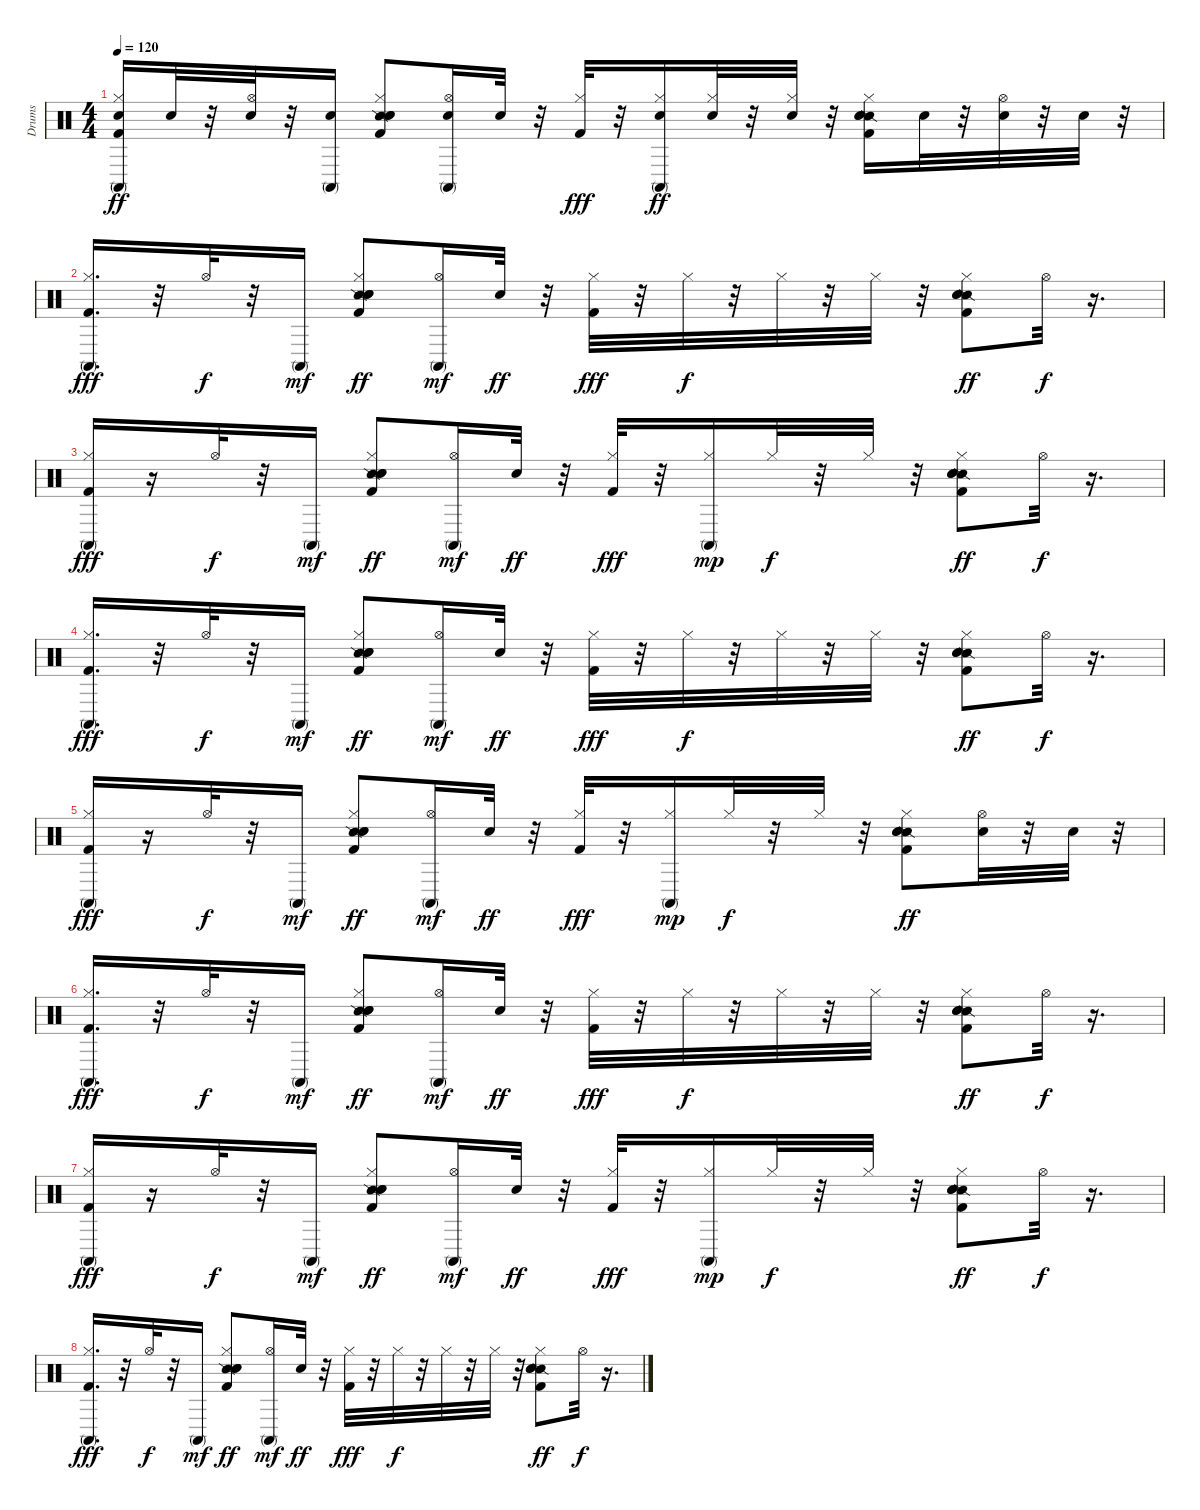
\track ("Drums" "Drums") {instrument percussion}
\staff {score}
\articulation defaults
\ts (4 4)
\tempo 120
\clef neutral
\ks c
("Conga high (mute)" "Kick (hit) 2" "Snare (hit) 2" "Hi-Hat (closed)").16{dy ff} "Snare (hit) 2".32 r.32 ("Snare (hit) 2" "Hi-Hat (open)").32 r.32 ("Conga high (mute)" "Snare (hit) 2").16 ("Snare (side stick) 2" "Kick (hit) 2" "Snare (hit) 2" "Hi-Hat (closed)" "Hand Clap (hit)").8 ("Conga high (mute)" "Snare (hit) 2" "Hi-Hat (open)").16 "Snare (hit) 2".32 r.32 ("Kick (hit) 2" "Hi-Hat (closed)").32{dy fff} r.32 ("Conga high (mute)" "Snare (hit) 2" "Hi-Hat (closed)").16{dy ff} ("Snare (hit) 2" "Hi-Hat (closed)").32 r.32 ("Snare (hit) 2" "Hi-Hat (closed)").32 r.32 ("Snare (side stick) 2" "Kick (hit) 2" "Snare (hit) 2" "Hi-Hat (closed)" "Hand Clap (hit)").16 "Snare (hit) 2".32 r.32 ("Snare (hit) 2" "Hi-Hat (open)").32 r.32 "Snare (hit) 2".32 r.32 |
("Conga high (mute)" "Kick (hit) 2" "Hi-Hat (closed)").16{d dy fff} r.32 "Hi-Hat (open)".32{dy f} r.32 "Conga high (mute)".16{dy mf} ("Snare (side stick) 2" "Kick (hit) 2" "Snare (hit) 2" "Hi-Hat (closed)" "Hand Clap (hit)").8{dy ff} ("Conga high (mute)" "Hi-Hat (open)").16{dy mf} "Snare (hit) 2".32{dy ff} r.32 ("Kick (hit) 2" "Hi-Hat (closed)").32{dy fff} r.32 "Hi-Hat (closed)".32{dy f} r.32 "Hi-Hat (closed)".32 r.32 "Hi-Hat (closed)".32 r.32 ("Snare (side stick) 2" "Kick (hit) 2" "Snare (hit) 2" "Hi-Hat (closed)" "Hand Clap (hit)").8{dy ff} "Hi-Hat (open)".32{dy f} r.16{d} |
("Conga high (mute)" "Kick (hit) 2" "Hi-Hat (closed)").16{dy fff} r.16 "Hi-Hat (open)".32{dy f} r.32 "Conga high (mute)".16{dy mf} ("Snare (side stick) 2" "Kick (hit) 2" "Snare (hit) 2" "Hi-Hat (closed)" "Hand Clap (hit)").8{dy ff} ("Conga high (mute)" "Hi-Hat (open)").16{dy mf} "Snare (hit) 2".32{dy ff} r.32 ("Kick (hit) 2" "Hi-Hat (closed)").32{dy fff} r.32 ("Conga high (mute)" "Hi-Hat (closed)").16{dy mp} "Hi-Hat (closed)".32{dy f} r.32 "Hi-Hat (closed)".32 r.32 ("Snare (side stick) 2" "Kick (hit) 2" "Snare (hit) 2" "Hi-Hat (closed)" "Hand Clap (hit)").8{dy ff} "Hi-Hat (open)".32{dy f} r.16{d} |
("Conga high (mute)" "Kick (hit) 2" "Hi-Hat (closed)").16{d dy fff} r.32 "Hi-Hat (open)".32{dy f} r.32 "Conga high (mute)".16{dy mf} ("Snare (side stick) 2" "Kick (hit) 2" "Snare (hit) 2" "Hi-Hat (closed)" "Hand Clap (hit)").8{dy ff} ("Conga high (mute)" "Hi-Hat (open)").16{dy mf} "Snare (hit) 2".32{dy ff} r.32 ("Kick (hit) 2" "Hi-Hat (closed)").32{dy fff} r.32 "Hi-Hat (closed)".32{dy f} r.32 "Hi-Hat (closed)".32 r.32 "Hi-Hat (closed)".32 r.32 ("Snare (side stick) 2" "Kick (hit) 2" "Snare (hit) 2" "Hi-Hat (closed)" "Hand Clap (hit)").8{dy ff} "Hi-Hat (open)".32{dy f} r.16{d} |
("Conga high (mute)" "Kick (hit) 2" "Hi-Hat (closed)").16{dy fff} r.16 "Hi-Hat (open)".32{dy f} r.32 "Conga high (mute)".16{dy mf} ("Snare (side stick) 2" "Kick (hit) 2" "Snare (hit) 2" "Hi-Hat (closed)" "Hand Clap (hit)").8{dy ff} ("Conga high (mute)" "Hi-Hat (open)").16{dy mf} "Snare (hit) 2".32{dy ff} r.32 ("Kick (hit) 2" "Hi-Hat (closed)").32{dy fff} r.32 ("Conga high (mute)" "Hi-Hat (closed)").16{dy mp} "Hi-Hat (closed)".32{dy f} r.32 "Hi-Hat (closed)".32 r.32 ("Snare (side stick) 2" "Kick (hit) 2" "Snare (hit) 2" "Hi-Hat (closed)" "Hand Clap (hit)").8{dy ff} ("Snare (hit) 2" "Hi-Hat (open)").32 r.32 "Snare (hit) 2".32 r.32 |
("Conga high (mute)" "Kick (hit) 2" "Hi-Hat (closed)").16{d dy fff} r.32 "Hi-Hat (open)".32{dy f} r.32 "Conga high (mute)".16{dy mf} ("Snare (side stick) 2" "Kick (hit) 2" "Snare (hit) 2" "Hi-Hat (closed)" "Hand Clap (hit)").8{dy ff} ("Conga high (mute)" "Hi-Hat (open)").16{dy mf} "Snare (hit) 2".32{dy ff} r.32 ("Kick (hit) 2" "Hi-Hat (closed)").32{dy fff} r.32 "Hi-Hat (closed)".32{dy f} r.32 "Hi-Hat (closed)".32 r.32 "Hi-Hat (closed)".32 r.32 ("Snare (side stick) 2" "Kick (hit) 2" "Snare (hit) 2" "Hi-Hat (closed)" "Hand Clap (hit)").8{dy ff} "Hi-Hat (open)".32{dy f} r.16{d} |
("Conga high (mute)" "Kick (hit) 2" "Hi-Hat (closed)").16{dy fff} r.16 "Hi-Hat (open)".32{dy f} r.32 "Conga high (mute)".16{dy mf} ("Snare (side stick) 2" "Kick (hit) 2" "Snare (hit) 2" "Hi-Hat (closed)" "Hand Clap (hit)").8{dy ff} ("Conga high (mute)" "Hi-Hat (open)").16{dy mf} "Snare (hit) 2".32{dy ff} r.32 ("Kick (hit) 2" "Hi-Hat (closed)").32{dy fff} r.32 ("Conga high (mute)" "Hi-Hat (closed)").16{dy mp} "Hi-Hat (closed)".32{dy f} r.32 "Hi-Hat (closed)".32 r.32 ("Snare (side stick) 2" "Kick (hit) 2" "Snare (hit) 2" "Hi-Hat (closed)" "Hand Clap (hit)").8{dy ff} "Hi-Hat (open)".32{dy f} r.16{d} |
("Conga high (mute)" "Kick (hit) 2" "Hi-Hat (closed)").16{d dy fff} r.32 "Hi-Hat (open)".32{dy f} r.32 "Conga high (mute)".16{dy mf} ("Snare (side stick) 2" "Kick (hit) 2" "Snare (hit) 2" "Hi-Hat (closed)" "Hand Clap (hit)").8{dy ff} ("Conga high (mute)" "Hi-Hat (open)").16{dy mf} "Snare (hit) 2".32{dy ff} r.32 ("Kick (hit) 2" "Hi-Hat (closed)").32{dy fff} r.32 "Hi-Hat (closed)".32{dy f} r.32 "Hi-Hat (closed)".32 r.32 "Hi-Hat (closed)".32 r.32 ("Snare (side stick) 2" "Kick (hit) 2" "Snare (hit) 2" "Hi-Hat (closed)" "Hand Clap (hit)").8{dy ff} "Hi-Hat (open)".32{dy f} r.16{d}
